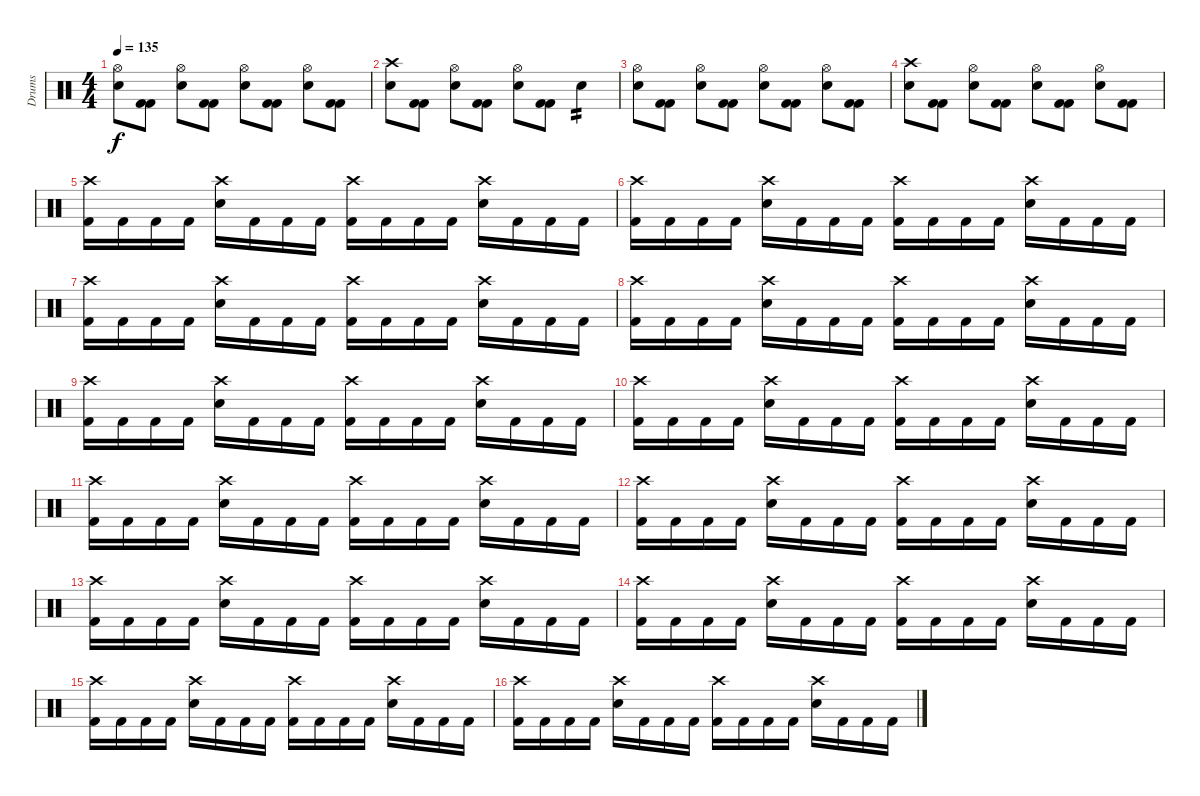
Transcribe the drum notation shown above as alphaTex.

\track ("Drums" "Drums") {instrument percussion}
\staff {score}
\articulation defaults
\ts (4 4)
\tempo 135
\clef neutral
\ks c
("Hi-Hat (open)" "Electric Snare (hit)").8{dy f} ("Kick (hit) 2" "Kick (hit) 2").8 ("Electric Snare (hit)" "Hi-Hat (open)").8 ("Kick (hit) 2" "Kick (hit) 2").8 ("Hi-Hat (open)" "Electric Snare (hit)").8 ("Kick (hit) 2" "Kick (hit) 2").8 ("Electric Snare (hit)" "Hi-Hat (open)").8 ("Kick (hit) 2" "Kick (hit) 2").8 |
("Crash high (hit)" "Electric Snare (hit)").8 ("Kick (hit) 2" "Kick (hit) 2").8 ("Electric Snare (hit)" "Hi-Hat (open)").8 ("Kick (hit) 2" "Kick (hit) 2").8 ("Hi-Hat (open)" "Electric Snare (hit)").8 ("Kick (hit) 2" "Kick (hit) 2").8 "Electric Snare (hit)".4{tp 2} |
("Hi-Hat (open)" "Electric Snare (hit)").8 ("Kick (hit) 2" "Kick (hit) 2").8 ("Electric Snare (hit)" "Hi-Hat (open)").8 ("Kick (hit) 2" "Kick (hit) 2").8 ("Hi-Hat (open)" "Electric Snare (hit)").8 ("Kick (hit) 2" "Kick (hit) 2").8 ("Electric Snare (hit)" "Hi-Hat (open)").8 ("Kick (hit) 2" "Kick (hit) 2").8 |
("Crash high (hit)" "Electric Snare (hit)").8 ("Kick (hit) 2" "Kick (hit) 2").8 ("Electric Snare (hit)" "Hi-Hat (open)").8 ("Kick (hit) 2" "Kick (hit) 2").8 ("Hi-Hat (open)" "Electric Snare (hit)").8 ("Kick (hit) 2" "Kick (hit) 2").8 ("Electric Snare (hit)" "Hi-Hat (open)").8 ("Kick (hit) 2" "Kick (hit) 2").8 |
("Crash high (hit)" "Kick (hit) 2").16 "Kick (hit) 2".16 "Kick (hit) 2".16 "Kick (hit) 2".16 ("Crash high (hit)" "Electric Snare (hit)").16 "Kick (hit) 2".16 "Kick (hit) 2".16 "Kick (hit) 2".16 ("Crash high (hit)" "Kick (hit) 2").16 "Kick (hit) 2".16 "Kick (hit) 2".16 "Kick (hit) 2".16 ("Electric Snare (hit)" "Crash high (hit)").16 "Kick (hit) 2".16 "Kick (hit) 2".16 "Kick (hit) 2".16 |
("Crash high (hit)" "Kick (hit) 2").16 "Kick (hit) 2".16 "Kick (hit) 2".16 "Kick (hit) 2".16 ("Crash high (hit)" "Electric Snare (hit)").16 "Kick (hit) 2".16 "Kick (hit) 2".16 "Kick (hit) 2".16 ("Crash high (hit)" "Kick (hit) 2").16 "Kick (hit) 2".16 "Kick (hit) 2".16 "Kick (hit) 2".16 ("Electric Snare (hit)" "Crash high (hit)").16 "Kick (hit) 2".16 "Kick (hit) 2".16 "Kick (hit) 2".16 |
("Crash high (hit)" "Kick (hit) 2").16 "Kick (hit) 2".16 "Kick (hit) 2".16 "Kick (hit) 2".16 ("Crash high (hit)" "Electric Snare (hit)").16 "Kick (hit) 2".16 "Kick (hit) 2".16 "Kick (hit) 2".16 ("Crash high (hit)" "Kick (hit) 2").16 "Kick (hit) 2".16 "Kick (hit) 2".16 "Kick (hit) 2".16 ("Electric Snare (hit)" "Crash high (hit)").16 "Kick (hit) 2".16 "Kick (hit) 2".16 "Kick (hit) 2".16 |
("Crash high (hit)" "Kick (hit) 2").16 "Kick (hit) 2".16 "Kick (hit) 2".16 "Kick (hit) 2".16 ("Crash high (hit)" "Electric Snare (hit)").16 "Kick (hit) 2".16 "Kick (hit) 2".16 "Kick (hit) 2".16 ("Crash high (hit)" "Kick (hit) 2").16 "Kick (hit) 2".16 "Kick (hit) 2".16 "Kick (hit) 2".16 ("Electric Snare (hit)" "Crash high (hit)").16 "Kick (hit) 2".16 "Kick (hit) 2".16 "Kick (hit) 2".16 |
("Crash high (hit)" "Kick (hit) 2").16 "Kick (hit) 2".16 "Kick (hit) 2".16 "Kick (hit) 2".16 ("Crash high (hit)" "Electric Snare (hit)").16 "Kick (hit) 2".16 "Kick (hit) 2".16 "Kick (hit) 2".16 ("Crash high (hit)" "Kick (hit) 2").16 "Kick (hit) 2".16 "Kick (hit) 2".16 "Kick (hit) 2".16 ("Electric Snare (hit)" "Crash high (hit)").16 "Kick (hit) 2".16 "Kick (hit) 2".16 "Kick (hit) 2".16 |
("Crash high (hit)" "Kick (hit) 2").16 "Kick (hit) 2".16 "Kick (hit) 2".16 "Kick (hit) 2".16 ("Crash high (hit)" "Electric Snare (hit)").16 "Kick (hit) 2".16 "Kick (hit) 2".16 "Kick (hit) 2".16 ("Crash high (hit)" "Kick (hit) 2").16 "Kick (hit) 2".16 "Kick (hit) 2".16 "Kick (hit) 2".16 ("Electric Snare (hit)" "Crash high (hit)").16 "Kick (hit) 2".16 "Kick (hit) 2".16 "Kick (hit) 2".16 |
("Crash high (hit)" "Kick (hit) 2").16 "Kick (hit) 2".16 "Kick (hit) 2".16 "Kick (hit) 2".16 ("Crash high (hit)" "Electric Snare (hit)").16 "Kick (hit) 2".16 "Kick (hit) 2".16 "Kick (hit) 2".16 ("Crash high (hit)" "Kick (hit) 2").16 "Kick (hit) 2".16 "Kick (hit) 2".16 "Kick (hit) 2".16 ("Electric Snare (hit)" "Crash high (hit)").16 "Kick (hit) 2".16 "Kick (hit) 2".16 "Kick (hit) 2".16 |
("Crash high (hit)" "Kick (hit) 2").16 "Kick (hit) 2".16 "Kick (hit) 2".16 "Kick (hit) 2".16 ("Crash high (hit)" "Electric Snare (hit)").16 "Kick (hit) 2".16 "Kick (hit) 2".16 "Kick (hit) 2".16 ("Crash high (hit)" "Kick (hit) 2").16 "Kick (hit) 2".16 "Kick (hit) 2".16 "Kick (hit) 2".16 ("Electric Snare (hit)" "Crash high (hit)").16 "Kick (hit) 2".16 "Kick (hit) 2".16 "Kick (hit) 2".16 |
("Crash high (hit)" "Kick (hit) 2").16 "Kick (hit) 2".16 "Kick (hit) 2".16 "Kick (hit) 2".16 ("Crash high (hit)" "Electric Snare (hit)").16 "Kick (hit) 2".16 "Kick (hit) 2".16 "Kick (hit) 2".16 ("Crash high (hit)" "Kick (hit) 2").16 "Kick (hit) 2".16 "Kick (hit) 2".16 "Kick (hit) 2".16 ("Electric Snare (hit)" "Crash high (hit)").16 "Kick (hit) 2".16 "Kick (hit) 2".16 "Kick (hit) 2".16 |
("Crash high (hit)" "Kick (hit) 2").16 "Kick (hit) 2".16 "Kick (hit) 2".16 "Kick (hit) 2".16 ("Crash high (hit)" "Electric Snare (hit)").16 "Kick (hit) 2".16 "Kick (hit) 2".16 "Kick (hit) 2".16 ("Crash high (hit)" "Kick (hit) 2").16 "Kick (hit) 2".16 "Kick (hit) 2".16 "Kick (hit) 2".16 ("Electric Snare (hit)" "Crash high (hit)").16 "Kick (hit) 2".16 "Kick (hit) 2".16 "Kick (hit) 2".16 |
("Crash high (hit)" "Kick (hit) 2").16 "Kick (hit) 2".16 "Kick (hit) 2".16 "Kick (hit) 2".16 ("Crash high (hit)" "Electric Snare (hit)").16 "Kick (hit) 2".16 "Kick (hit) 2".16 "Kick (hit) 2".16 ("Crash high (hit)" "Kick (hit) 2").16 "Kick (hit) 2".16 "Kick (hit) 2".16 "Kick (hit) 2".16 ("Electric Snare (hit)" "Crash high (hit)").16 "Kick (hit) 2".16 "Kick (hit) 2".16 "Kick (hit) 2".16 |
("Crash high (hit)" "Kick (hit) 2").16 "Kick (hit) 2".16 "Kick (hit) 2".16 "Kick (hit) 2".16 ("Crash high (hit)" "Electric Snare (hit)").16 "Kick (hit) 2".16 "Kick (hit) 2".16 "Kick (hit) 2".16 ("Crash high (hit)" "Kick (hit) 2").16 "Kick (hit) 2".16 "Kick (hit) 2".16 "Kick (hit) 2".16 ("Electric Snare (hit)" "Crash high (hit)").16 "Kick (hit) 2".16 "Kick (hit) 2".16 "Kick (hit) 2".16
